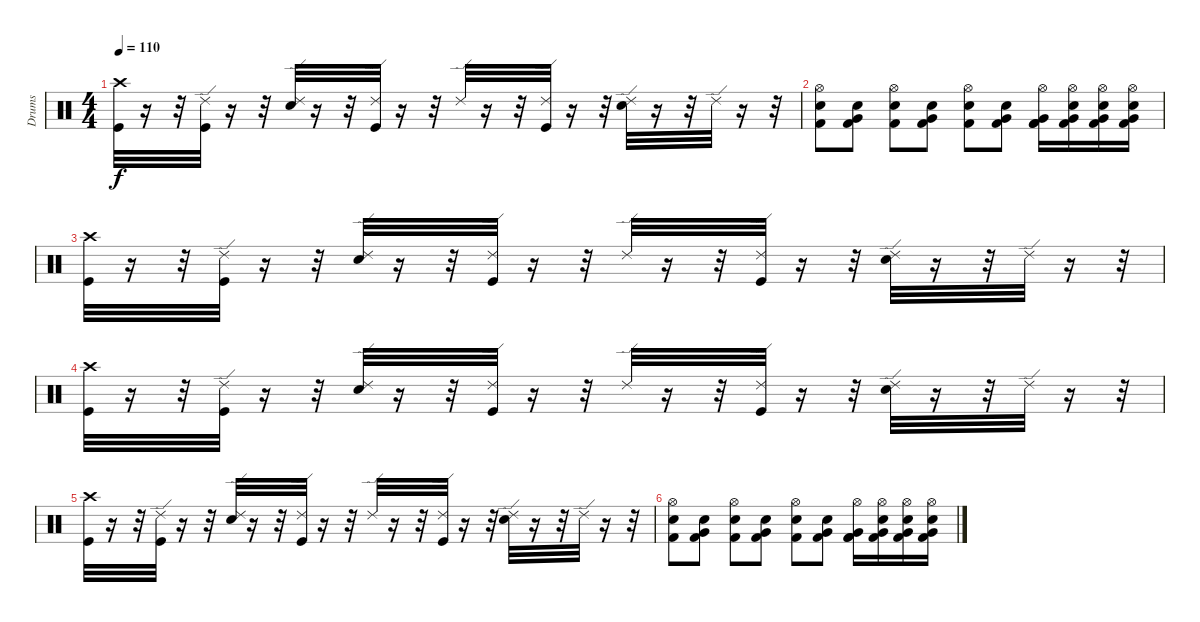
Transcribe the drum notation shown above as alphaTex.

\track ("Drums" "Drums") {instrument percussion}
\staff {score}
\articulation defaults
\ts (4 4)
\tempo 110
\clef neutral
\ks c
("Kick (hit)" "Crash high (hit)").32{dy f} r.16 r.32 ("Ride (edge) 2" "Kick (hit)").32 r.16 r.32 ("Ride (edge) 2" "Electric Snare (hit)").32 r.16 r.32 ("Ride (edge) 2" "Kick (hit)").32 r.16 r.32 "Ride (edge) 2".32 r.16 r.32 ("Ride (edge) 2" "Kick (hit)").32 r.16 r.32 ("Ride (edge) 2" "Electric Snare (hit)").32 r.16 r.32 "Ride (edge) 2".32 r.16 r.32 |
("Hi-Hat (open)" "Kick (hit) 2" "Snare (hit) 2").8 ("Very Low Tom (hit)" "Kick (hit) 2" "Snare (hit) 2").8 ("Hi-Hat (open)" "Kick (hit) 2" "Snare (hit) 2").8 ("Very Low Tom (hit)" "Kick (hit) 2" "Snare (hit) 2").8 ("Hi-Hat (open)" "Kick (hit) 2" "Snare (hit) 2").8 ("Very Low Tom (hit)" "Kick (hit) 2" "Snare (hit) 2").8 ("Very Low Tom (hit)" "Hi-Hat (open)" "Kick (hit) 2" "Kick (hit) 2").16 ("Very Low Tom (hit)" "Hi-Hat (open)" "Kick (hit) 2" "Snare (hit) 2").16 ("Very Low Tom (hit)" "Hi-Hat (open)" "Kick (hit) 2" "Snare (hit) 2").16 ("Very Low Tom (hit)" "Hi-Hat (open)" "Kick (hit) 2" "Snare (hit) 2").16 |
("Kick (hit)" "Crash high (hit)").32 r.16 r.32 ("Ride (edge) 2" "Kick (hit)").32 r.16 r.32 ("Ride (edge) 2" "Electric Snare (hit)").32 r.16 r.32 ("Ride (edge) 2" "Kick (hit)").32 r.16 r.32 "Ride (edge) 2".32 r.16 r.32 ("Ride (edge) 2" "Kick (hit)").32 r.16 r.32 ("Ride (edge) 2" "Electric Snare (hit)").32 r.16 r.32 "Ride (edge) 2".32 r.16 r.32 |
("Kick (hit)" "Crash high (hit)").32 r.16 r.32 ("Ride (edge) 2" "Kick (hit)").32 r.16 r.32 ("Ride (edge) 2" "Electric Snare (hit)").32 r.16 r.32 ("Ride (edge) 2" "Kick (hit)").32 r.16 r.32 "Ride (edge) 2".32 r.16 r.32 ("Ride (edge) 2" "Kick (hit)").32 r.16 r.32 ("Ride (edge) 2" "Electric Snare (hit)").32 r.16 r.32 "Ride (edge) 2".32 r.16 r.32 |
("Kick (hit)" "Crash high (hit)").32 r.16 r.32 ("Ride (edge) 2" "Kick (hit)").32 r.16 r.32 ("Ride (edge) 2" "Electric Snare (hit)").32 r.16 r.32 ("Ride (edge) 2" "Kick (hit)").32 r.16 r.32 "Ride (edge) 2".32 r.16 r.32 ("Ride (edge) 2" "Kick (hit)").32 r.16 r.32 ("Ride (edge) 2" "Electric Snare (hit)").32 r.16 r.32 "Ride (edge) 2".32 r.16 r.32 |
("Hi-Hat (open)" "Kick (hit) 2" "Snare (hit) 2").8 ("Very Low Tom (hit)" "Kick (hit) 2" "Snare (hit) 2").8 ("Hi-Hat (open)" "Kick (hit) 2" "Snare (hit) 2").8 ("Very Low Tom (hit)" "Kick (hit) 2" "Snare (hit) 2").8 ("Hi-Hat (open)" "Kick (hit) 2" "Snare (hit) 2").8 ("Very Low Tom (hit)" "Kick (hit) 2" "Snare (hit) 2").8 ("Very Low Tom (hit)" "Hi-Hat (open)" "Kick (hit) 2" "Kick (hit) 2").16 ("Very Low Tom (hit)" "Hi-Hat (open)" "Kick (hit) 2" "Snare (hit) 2").16 ("Very Low Tom (hit)" "Hi-Hat (open)" "Kick (hit) 2" "Snare (hit) 2").16 ("Very Low Tom (hit)" "Hi-Hat (open)" "Kick (hit) 2" "Snare (hit) 2").16
